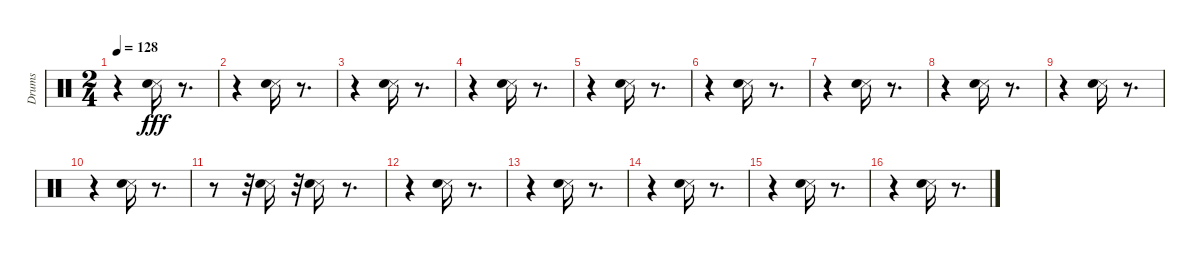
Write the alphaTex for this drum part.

\track ("Drums" "Drums") {instrument percussion}
\staff {score}
\articulation defaults
\ts (2 4)
\tempo 128
\clef neutral
\ks c
r.4{dy fff} ("Snare (side stick) 3" "Hand Clap (hit)").16 r.8{d} |
r.4 ("Snare (side stick) 3" "Hand Clap (hit)").16 r.8{d} |
r.4 ("Snare (side stick) 3" "Hand Clap (hit)").16 r.8{d} |
r.4 ("Snare (side stick) 3" "Hand Clap (hit)").16 r.8{d} |
r.4 ("Snare (side stick) 3" "Hand Clap (hit)").16 r.8{d} |
r.4 ("Snare (side stick) 3" "Hand Clap (hit)").16 r.8{d} |
r.4 ("Snare (side stick) 3" "Hand Clap (hit)").16 r.8{d} |
r.4 ("Snare (side stick) 3" "Hand Clap (hit)").16 r.8{d} |
r.4 ("Snare (side stick) 3" "Hand Clap (hit)").16 r.8{d} |
r.4 ("Snare (side stick) 3" "Hand Clap (hit)").16 r.8{d} |
r.8 r.32 ("Snare (side stick) 3" "Hand Clap (hit)").16 r.32 ("Snare (side stick) 3" "Hand Clap (hit)").16 r.8{d} |
r.4 ("Snare (side stick) 3" "Hand Clap (hit)").16 r.8{d} |
r.4 ("Snare (side stick) 3" "Hand Clap (hit)").16 r.8{d} |
r.4 ("Snare (side stick) 3" "Hand Clap (hit)").16 r.8{d} |
r.4 ("Snare (side stick) 3" "Hand Clap (hit)").16 r.8{d} |
r.4 ("Snare (side stick) 3" "Hand Clap (hit)").16 r.8{d}
